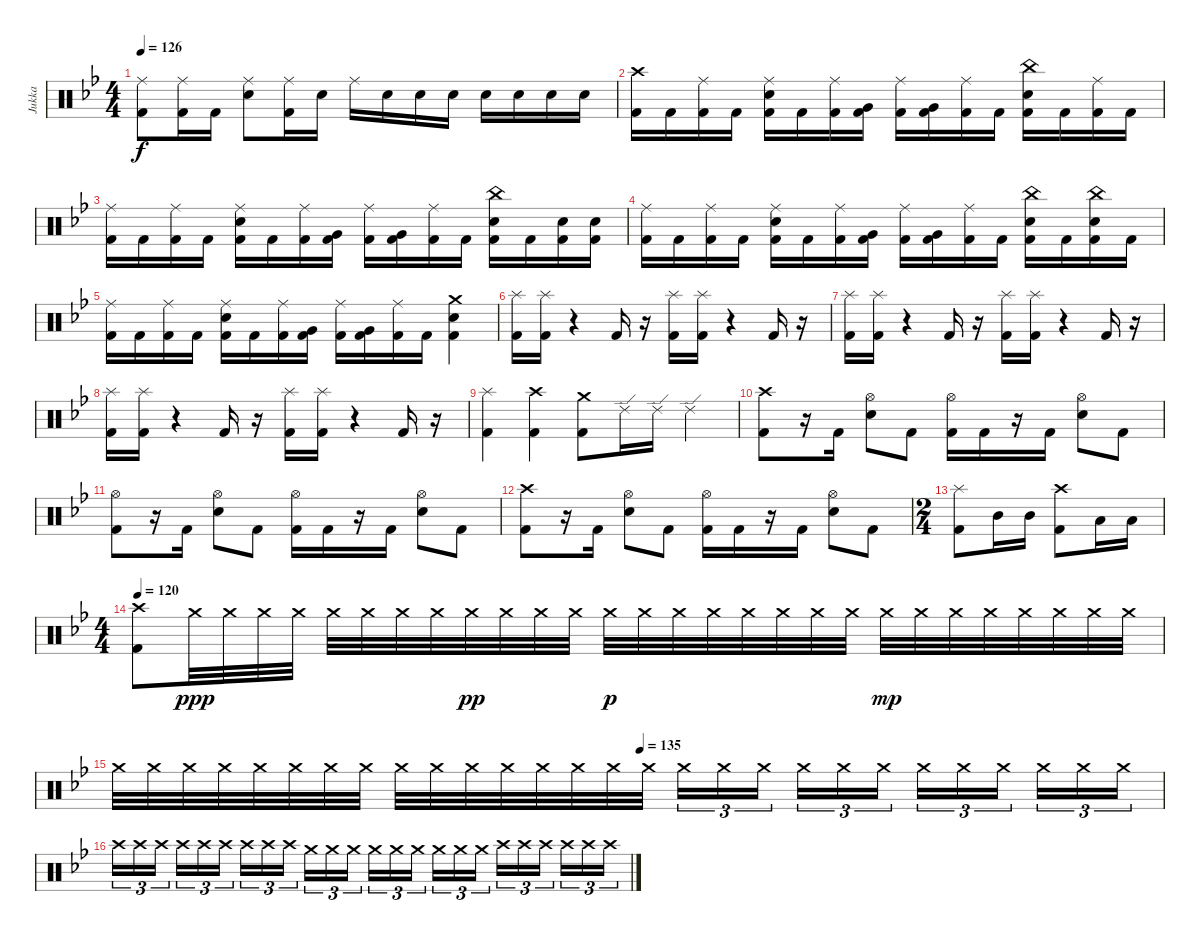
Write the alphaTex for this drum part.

\track ("Jukka" "Jukka") {instrument percussion}
\staff {score}
\articulation defaults
\ts (4 4)
\tempo 126
\clef neutral
\ks gminor
("Ride (middle)" "Kick (hit) 2").8{dy f} ("Ride (middle)" "Kick (hit) 2").16 "Kick (hit) 2".16 ("Ride (middle)" "Electric Snare (hit)").8 ("Ride (middle)" "Kick (hit) 2").16 "Electric Snare (hit)".16 "Ride (middle)".16 "Electric Snare (hit)".16 "Electric Snare (hit)".16 "Electric Snare (hit)".16 "Electric Snare (hit)".16 "Electric Snare (hit)".16 "Electric Snare (hit)".16 "Electric Snare (hit)".16 |
("Crash high (hit)" "Kick (hit) 2").16 "Kick (hit) 2".16 ("Ride (middle)" "Kick (hit) 2").16 "Kick (hit) 2".16 ("Ride (middle)" "Electric Snare (hit)" "Kick (hit) 2").16 "Kick (hit) 2".16 ("Ride (middle)" "Kick (hit) 2").16 ("Very Low Tom (hit)" "Kick (hit) 2").16 ("Ride (middle)" "Kick (hit) 2").16 ("Very Low Tom (hit)" "Kick (hit) 2").16 ("Ride (middle)" "Kick (hit) 2").16 "Kick (hit) 2".16 ("China (hit)" "Electric Snare (hit)" "Kick (hit) 2").16 "Kick (hit) 2".16 ("Ride (middle)" "Kick (hit) 2").16 "Kick (hit) 2".16 |
("Ride (middle)" "Kick (hit) 2").16 "Kick (hit) 2".16 ("Ride (middle)" "Kick (hit) 2").16 "Kick (hit) 2".16 ("Ride (middle)" "Electric Snare (hit)" "Kick (hit) 2").16 "Kick (hit) 2".16 ("Ride (middle)" "Kick (hit) 2").16 ("Very Low Tom (hit)" "Kick (hit) 2").16 ("Ride (middle)" "Kick (hit) 2").16 ("Very Low Tom (hit)" "Kick (hit) 2").16 ("Ride (middle)" "Kick (hit) 2").16 "Kick (hit) 2".16 ("China (hit)" "Electric Snare (hit)" "Kick (hit) 2").16 "Kick (hit) 2".16 ("Electric Snare (hit)" "Kick (hit) 2").16 ("Electric Snare (hit)" "Kick (hit) 2").16 |
("Ride (middle)" "Kick (hit) 2").16 "Kick (hit) 2".16 ("Ride (middle)" "Kick (hit) 2").16 "Kick (hit) 2".16 ("Ride (middle)" "Electric Snare (hit)" "Kick (hit) 2").16 "Kick (hit) 2".16 ("Ride (middle)" "Kick (hit) 2").16 ("Very Low Tom (hit)" "Kick (hit) 2").16 ("Ride (middle)" "Kick (hit) 2").16 ("Very Low Tom (hit)" "Kick (hit) 2").16 ("Ride (middle)" "Kick (hit) 2").16 "Kick (hit) 2".16 ("China (hit)" "Electric Snare (hit)" "Kick (hit) 2").16 "Kick (hit) 2".16 ("China (hit)" "Electric Snare (hit)" "Kick (hit) 2").16 "Kick (hit) 2".16 |
("Ride (middle)" "Kick (hit) 2").16 "Kick (hit) 2".16 ("Ride (middle)" "Kick (hit) 2").16 "Kick (hit) 2".16 ("Ride (middle)" "Electric Snare (hit)" "Kick (hit) 2").16 "Kick (hit) 2".16 ("Ride (middle)" "Kick (hit) 2").16 ("Very Low Tom (hit)" "Kick (hit) 2").16 ("Ride (middle)" "Kick (hit) 2").16 ("Very Low Tom (hit)" "Kick (hit) 2").16 ("Ride (middle)" "Kick (hit) 2").16 "Kick (hit) 2".16 ("Crash medium (hit)" "Electric Snare (hit)" "Kick (hit) 2").4 |
("Splash (hit)" "Kick (hit) 2").16 ("Splash (hit)" "Kick (hit) 2").16 r.4 "Kick (hit) 2".16 r.16 ("Splash (hit)" "Kick (hit) 2").16 ("Splash (hit)" "Kick (hit) 2").16 r.4 "Kick (hit) 2".16 r.16 |
("Splash (hit)" "Kick (hit) 2").16 ("Splash (hit)" "Kick (hit) 2").16 r.4 "Kick (hit) 2".16 r.16 ("Splash (hit)" "Kick (hit) 2").16 ("Splash (hit)" "Kick (hit) 2").16 r.4 "Kick (hit) 2".16 r.16 |
("Splash (hit)" "Kick (hit) 2").16 ("Splash (hit)" "Kick (hit) 2").16 r.4 "Kick (hit) 2".16 r.16 ("Splash (hit)" "Kick (hit) 2").16 ("Splash (hit)" "Kick (hit) 2").16 r.4 "Kick (hit) 2".16 r.16 |
("Splash (hit)" "Kick (hit) 2").4 ("Crash high (hit)" "Kick (hit) 2").4 ("Crash medium (hit)" "Kick (hit) 2").8 "Ride (edge) 2".16 "Ride (edge) 2".16 "Ride (edge) 2".4 |
("Crash high (hit)" "Kick (hit) 2").8 r.16 "Kick (hit) 2".16 ("Hi-Hat (open)" "Electric Snare (hit)").8 "Kick (hit) 2".8 ("Hi-Hat (open)" "Kick (hit) 2").16 "Kick (hit) 2".16 r.16 "Kick (hit) 2".16 ("Hi-Hat (open)" "Electric Snare (hit)").8 "Kick (hit) 2".8 |
("Hi-Hat (open)" "Kick (hit) 2").8 r.16 "Kick (hit) 2".16 ("Hi-Hat (open)" "Electric Snare (hit)").8 "Kick (hit) 2".8 ("Hi-Hat (open)" "Kick (hit) 2").16 "Kick (hit) 2".16 r.16 "Kick (hit) 2".16 ("Hi-Hat (open)" "Electric Snare (hit)").8 "Kick (hit) 2".8 |
("Crash high (hit)" "Kick (hit) 2").8 r.16 "Kick (hit) 2".16 ("Hi-Hat (open)" "Electric Snare (hit)").8 "Kick (hit) 2".8 ("Hi-Hat (open)" "Kick (hit) 2").16 "Kick (hit) 2".16 r.16 "Kick (hit) 2".16 ("Hi-Hat (open)" "Electric Snare (hit)").8 "Kick (hit) 2".8 |
\ts (2 4)
("Splash (hit)" "Kick (hit) 2").8 "Mid Tom (hit)".16 "Mid Tom (hit)".16 ("Crash high (hit)" "Kick (hit) 2").8 "Low Tom (hit)".16 "Low Tom (hit)".16 |
\ts (4 4)
\tempo 120
("Crash high (hit)" "Kick (hit) 2").8 "Crash medium (hit)".32{dy ppp} "Crash medium (hit)".32 "Crash medium (hit)".32 "Crash medium (hit)".32 "Crash medium (hit)".32 "Crash medium (hit)".32 "Crash medium (hit)".32 "Crash medium (hit)".32 "Crash medium (hit)".32{dy pp} "Crash medium (hit)".32 "Crash medium (hit)".32 "Crash medium (hit)".32 "Crash medium (hit)".32{dy p} "Crash medium (hit)".32 "Crash medium (hit)".32 "Crash medium (hit)".32 "Crash medium (hit)".32 "Crash medium (hit)".32 "Crash medium (hit)".32 "Crash medium (hit)".32 "Crash medium (hit)".32{dy mp} "Crash medium (hit)".32 "Crash medium (hit)".32 "Crash medium (hit)".32 "Crash medium (hit)".32 "Crash medium (hit)".32 "Crash medium (hit)".32 "Crash medium (hit)".32 |
\tempo (135 0.5)
"Crash medium (hit)".32 "Crash medium (hit)".32 "Crash medium (hit)".32 "Crash medium (hit)".32 "Crash medium (hit)".32 "Crash medium (hit)".32 "Crash medium (hit)".32 "Crash medium (hit)".32 "Crash medium (hit)".32 "Crash medium (hit)".32 "Crash medium (hit)".32 "Crash medium (hit)".32 "Crash medium (hit)".32 "Crash medium (hit)".32 "Crash medium (hit)".32 "Crash medium (hit)".32 "Crash medium (hit)".16{tu (3 2)} "Crash medium (hit)".16{tu (3 2)} "Crash medium (hit)".16{tu (3 2)} "Crash medium (hit)".16{tu (3 2)} "Crash medium (hit)".16{tu (3 2)} "Crash medium (hit)".16{tu (3 2)} "Crash medium (hit)".16{tu (3 2)} "Crash medium (hit)".16{tu (3 2)} "Crash medium (hit)".16{tu (3 2)} "Crash medium (hit)".16{tu (3 2)} "Crash medium (hit)".16{tu (3 2)} "Crash medium (hit)".16{tu (3 2)} |
"Crash high (hit)".16{tu (3 2)} "Crash high (hit)".16{tu (3 2)} "Crash high (hit)".16{tu (3 2)} "Crash high (hit)".16{tu (3 2)} "Crash high (hit)".16{tu (3 2)} "Crash high (hit)".16{tu (3 2)} "Crash high (hit)".16{tu (3 2)} "Crash high (hit)".16{tu (3 2)} "Crash high (hit)".16{tu (3 2)} "Crash medium (hit)".16{tu (3 2)} "Crash medium (hit)".16{tu (3 2)} "Crash medium (hit)".16{tu (3 2)} "Crash medium (hit)".16{tu (3 2)} "Crash medium (hit)".16{tu (3 2)} "Crash medium (hit)".16{tu (3 2)} "Crash medium (hit)".16{tu (3 2)} "Crash medium (hit)".16{tu (3 2)} "Crash medium (hit)".16{tu (3 2)} "Crash high (hit)".16{tu (3 2)} "Crash high (hit)".16{tu (3 2)} "Crash high (hit)".16{tu (3 2)} "Crash high (hit)".16{tu (3 2)} "Crash high (hit)".16{tu (3 2)} "Crash high (hit)".16{tu (3 2)}
